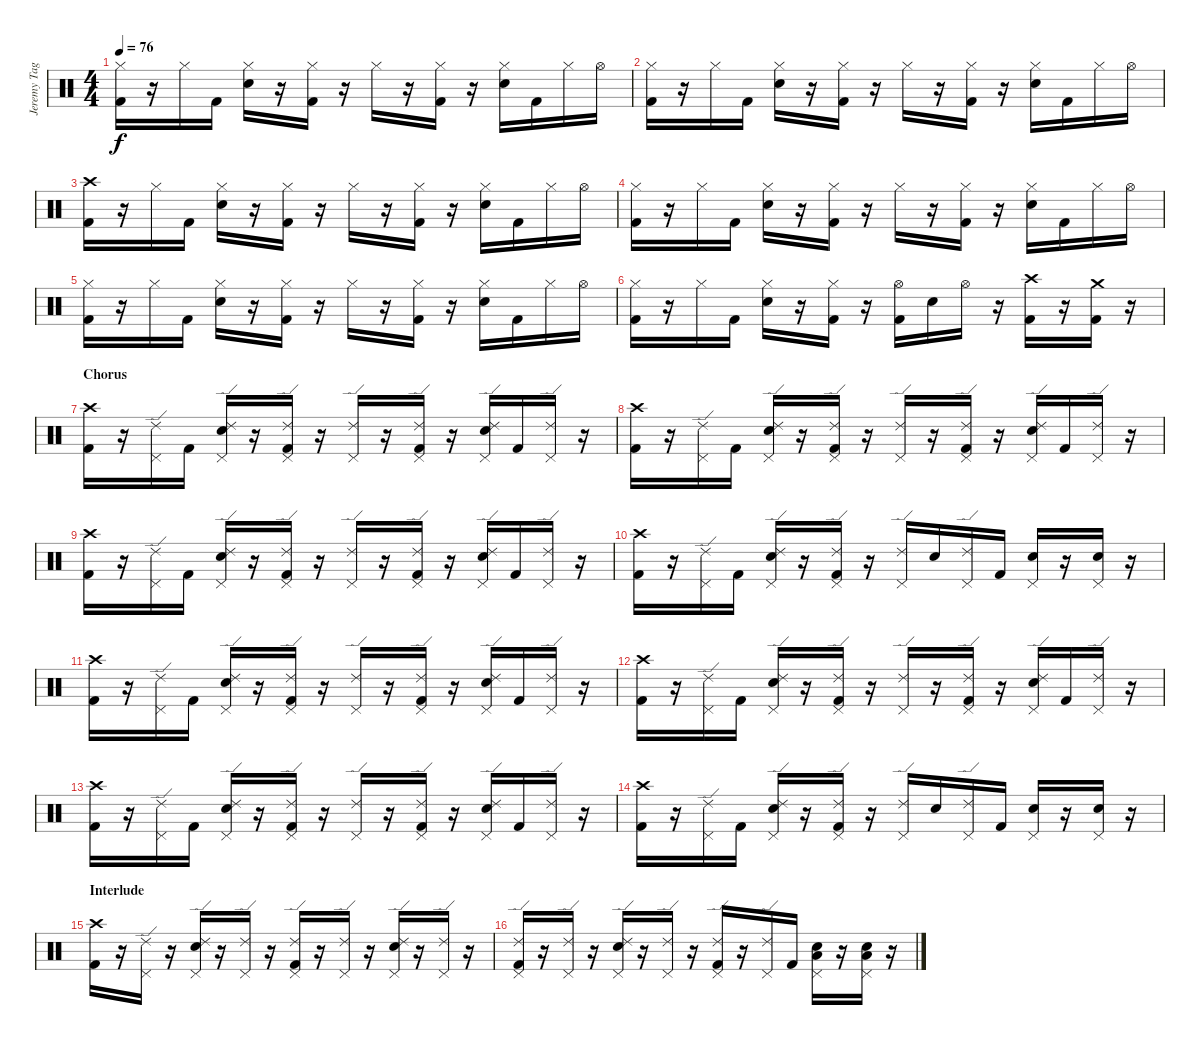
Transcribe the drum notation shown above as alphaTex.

\track ("Jeremy Taggart(Drums)" "Jeremy Tag") {instrument percussion}
\staff {score}
\articulation defaults
\ts (4 4)
\tempo 76
\clef neutral
\ks c
("Hi-Hat (closed)" "Kick (hit) 2").16{dy f} r.16 "Hi-Hat (closed)".16 "Kick (hit) 2".16 ("Hi-Hat (closed)" "Snare (hit) 2").16 r.16 ("Hi-Hat (closed)" "Kick (hit) 2").16 r.16 "Hi-Hat (closed)".16 r.16 ("Hi-Hat (closed)" "Kick (hit) 2").16 r.16 ("Hi-Hat (closed)" "Snare (hit) 2").16 "Kick (hit) 2".16 "Hi-Hat (closed)".16 "Hi-Hat (open)".16 |
("Hi-Hat (closed)" "Kick (hit) 2").16 r.16 "Hi-Hat (closed)".16 "Kick (hit) 2".16 ("Hi-Hat (closed)" "Snare (hit) 2").16 r.16 ("Hi-Hat (closed)" "Kick (hit) 2").16 r.16 "Hi-Hat (closed)".16 r.16 ("Hi-Hat (closed)" "Kick (hit) 2").16 r.16 ("Hi-Hat (closed)" "Snare (hit) 2").16 "Kick (hit) 2".16 "Hi-Hat (closed)".16 "Hi-Hat (open)".16 |
("Crash high (hit)" "Kick (hit) 2").16 r.16 "Hi-Hat (closed)".16 "Kick (hit) 2".16 ("Hi-Hat (closed)" "Snare (hit) 2").16 r.16 ("Hi-Hat (closed)" "Kick (hit) 2").16 r.16 "Hi-Hat (closed)".16 r.16 ("Hi-Hat (closed)" "Kick (hit) 2").16 r.16 ("Hi-Hat (closed)" "Snare (hit) 2").16 "Kick (hit) 2".16 "Hi-Hat (closed)".16 "Hi-Hat (open)".16 |
("Hi-Hat (closed)" "Kick (hit) 2").16 r.16 "Hi-Hat (closed)".16 "Kick (hit) 2".16 ("Hi-Hat (closed)" "Snare (hit) 2").16 r.16 ("Hi-Hat (closed)" "Kick (hit) 2").16 r.16 "Hi-Hat (closed)".16 r.16 ("Hi-Hat (closed)" "Kick (hit) 2").16 r.16 ("Hi-Hat (closed)" "Snare (hit) 2").16 "Kick (hit) 2".16 "Hi-Hat (closed)".16 "Hi-Hat (open)".16 |
("Hi-Hat (closed)" "Kick (hit) 2").16 r.16 "Hi-Hat (closed)".16 "Kick (hit) 2".16 ("Hi-Hat (closed)" "Snare (hit) 2").16 r.16 ("Hi-Hat (closed)" "Kick (hit) 2").16 r.16 "Hi-Hat (closed)".16 r.16 ("Hi-Hat (closed)" "Kick (hit) 2").16 r.16 ("Hi-Hat (closed)" "Snare (hit) 2").16 "Kick (hit) 2".16 "Hi-Hat (closed)".16 "Hi-Hat (open)".16 |
("Hi-Hat (closed)" "Kick (hit) 2").16 r.16 "Hi-Hat (closed)".16 "Kick (hit) 2".16 ("Hi-Hat (closed)" "Snare (hit) 2").16 r.16 ("Hi-Hat (closed)" "Kick (hit) 2").16 r.16 ("Hi-Hat (open)" "Kick (hit) 2").16 "Snare (hit) 2".16 "Hi-Hat (open)".16 r.16 ("Crash high (hit)" "Kick (hit) 2").16 r.16 ("Crash medium (hit)" "Kick (hit) 2").16 r.16 |
\section ("" "Chorus")
("Crash high (hit)" "Kick (hit) 2").16 r.16 ("Ride (edge) 2" "Pedal Hi-Hat (hit)").16 "Kick (hit) 2".16 ("Ride (edge) 2" "Snare (hit) 2" "Pedal Hi-Hat (hit)").16 r.16 ("Ride (edge) 2" "Pedal Hi-Hat (hit)" "Kick (hit) 2").16 r.16 ("Ride (edge) 2" "Pedal Hi-Hat (hit)").16 r.16 ("Ride (edge) 2" "Pedal Hi-Hat (hit)" "Kick (hit) 2").16 r.16 ("Ride (edge) 2" "Snare (hit) 2" "Pedal Hi-Hat (hit)").16 "Kick (hit) 2".16 ("Ride (edge) 2" "Pedal Hi-Hat (hit)").16 r.16 |
("Crash high (hit)" "Kick (hit) 2").16 r.16 ("Ride (edge) 2" "Pedal Hi-Hat (hit)").16 "Kick (hit) 2".16 ("Ride (edge) 2" "Snare (hit) 2" "Pedal Hi-Hat (hit)").16 r.16 ("Ride (edge) 2" "Pedal Hi-Hat (hit)" "Kick (hit) 2").16 r.16 ("Ride (edge) 2" "Pedal Hi-Hat (hit)").16 r.16 ("Ride (edge) 2" "Pedal Hi-Hat (hit)" "Kick (hit) 2").16 r.16 ("Ride (edge) 2" "Snare (hit) 2" "Pedal Hi-Hat (hit)").16 "Kick (hit) 2".16 ("Ride (edge) 2" "Pedal Hi-Hat (hit)").16 r.16 |
("Crash high (hit)" "Kick (hit) 2").16 r.16 ("Ride (edge) 2" "Pedal Hi-Hat (hit)").16 "Kick (hit) 2".16 ("Ride (edge) 2" "Snare (hit) 2" "Pedal Hi-Hat (hit)").16 r.16 ("Ride (edge) 2" "Pedal Hi-Hat (hit)" "Kick (hit) 2").16 r.16 ("Ride (edge) 2" "Pedal Hi-Hat (hit)").16 r.16 ("Ride (edge) 2" "Pedal Hi-Hat (hit)" "Kick (hit) 2").16 r.16 ("Ride (edge) 2" "Snare (hit) 2" "Pedal Hi-Hat (hit)").16 "Kick (hit) 2".16 ("Ride (edge) 2" "Pedal Hi-Hat (hit)").16 r.16 |
("Crash high (hit)" "Kick (hit) 2").16 r.16 ("Ride (edge) 2" "Pedal Hi-Hat (hit)").16 "Kick (hit) 2".16 ("Ride (edge) 2" "Snare (hit) 2" "Pedal Hi-Hat (hit)").16 r.16 ("Ride (edge) 2" "Pedal Hi-Hat (hit)" "Kick (hit) 2").16 r.16 ("Ride (edge) 2" "Pedal Hi-Hat (hit)").16 "Snare (hit) 2".16 ("Ride (edge) 2" "Pedal Hi-Hat (hit)").16 "Kick (hit) 2".16 ("Pedal Hi-Hat (hit)" "Snare (hit) 2").16 r.16 ("Pedal Hi-Hat (hit)" "Snare (hit) 2").16 r.16 |
("Crash high (hit)" "Kick (hit) 2").16 r.16 ("Ride (edge) 2" "Pedal Hi-Hat (hit)").16 "Kick (hit) 2".16 ("Ride (edge) 2" "Snare (hit) 2" "Pedal Hi-Hat (hit)").16 r.16 ("Ride (edge) 2" "Pedal Hi-Hat (hit)" "Kick (hit) 2").16 r.16 ("Ride (edge) 2" "Pedal Hi-Hat (hit)").16 r.16 ("Ride (edge) 2" "Pedal Hi-Hat (hit)" "Kick (hit) 2").16 r.16 ("Ride (edge) 2" "Snare (hit) 2" "Pedal Hi-Hat (hit)").16 "Kick (hit) 2".16 ("Ride (edge) 2" "Pedal Hi-Hat (hit)").16 r.16 |
("Crash high (hit)" "Kick (hit) 2").16 r.16 ("Ride (edge) 2" "Pedal Hi-Hat (hit)").16 "Kick (hit) 2".16 ("Ride (edge) 2" "Snare (hit) 2" "Pedal Hi-Hat (hit)").16 r.16 ("Ride (edge) 2" "Pedal Hi-Hat (hit)" "Kick (hit) 2").16 r.16 ("Ride (edge) 2" "Pedal Hi-Hat (hit)").16 r.16 ("Ride (edge) 2" "Pedal Hi-Hat (hit)" "Kick (hit) 2").16 r.16 ("Ride (edge) 2" "Snare (hit) 2" "Pedal Hi-Hat (hit)").16 "Kick (hit) 2".16 ("Ride (edge) 2" "Pedal Hi-Hat (hit)").16 r.16 |
("Crash high (hit)" "Kick (hit) 2").16 r.16 ("Ride (edge) 2" "Pedal Hi-Hat (hit)").16 "Kick (hit) 2".16 ("Ride (edge) 2" "Snare (hit) 2" "Pedal Hi-Hat (hit)").16 r.16 ("Ride (edge) 2" "Pedal Hi-Hat (hit)" "Kick (hit) 2").16 r.16 ("Ride (edge) 2" "Pedal Hi-Hat (hit)").16 r.16 ("Ride (edge) 2" "Pedal Hi-Hat (hit)" "Kick (hit) 2").16 r.16 ("Ride (edge) 2" "Snare (hit) 2" "Pedal Hi-Hat (hit)").16 "Kick (hit) 2".16 ("Ride (edge) 2" "Pedal Hi-Hat (hit)").16 r.16 |
("Crash high (hit)" "Kick (hit) 2").16 r.16 ("Ride (edge) 2" "Pedal Hi-Hat (hit)").16 "Kick (hit) 2".16 ("Ride (edge) 2" "Snare (hit) 2" "Pedal Hi-Hat (hit)").16 r.16 ("Ride (edge) 2" "Pedal Hi-Hat (hit)" "Kick (hit) 2").16 r.16 ("Ride (edge) 2" "Pedal Hi-Hat (hit)").16 "Snare (hit) 2".16 ("Ride (edge) 2" "Pedal Hi-Hat (hit)").16 "Kick (hit) 2".16 ("Pedal Hi-Hat (hit)" "Snare (hit) 2").16 r.16 ("Pedal Hi-Hat (hit)" "Snare (hit) 2").16 r.16 |
\section ("" "Interlude")
("Crash high (hit)" "Kick (hit) 2").16 r.16 ("Ride (edge) 2" "Pedal Hi-Hat (hit)").16 r.16 ("Ride (edge) 2" "Pedal Hi-Hat (hit)" "Snare (hit) 2").16 r.16 ("Ride (edge) 2" "Pedal Hi-Hat (hit)").16 r.16 ("Ride (edge) 2" "Pedal Hi-Hat (hit)" "Kick (hit) 2").16 r.16 ("Ride (edge) 2" "Pedal Hi-Hat (hit)").16 r.16 ("Ride (edge) 2" "Pedal Hi-Hat (hit)" "Snare (hit) 2").16 r.16 ("Ride (edge) 2" "Pedal Hi-Hat (hit)").16 r.16 |
("Ride (edge) 2" "Pedal Hi-Hat (hit)" "Kick (hit) 2").16 r.16 ("Ride (edge) 2" "Pedal Hi-Hat (hit)").16 r.16 ("Ride (edge) 2" "Pedal Hi-Hat (hit)" "Snare (hit) 2").16 r.16 ("Ride (edge) 2" "Pedal Hi-Hat (hit)").16 r.16 ("Ride (edge) 2" "Pedal Hi-Hat (hit)" "Kick (hit) 2").16 r.16 ("Ride (edge) 2" "Pedal Hi-Hat (hit)").16 "Kick (hit) 2".16 ("Pedal Hi-Hat (hit)" "Snare (hit) 2" "Low Tom (hit)").16 r.16 ("Pedal Hi-Hat (hit)" "Snare (hit) 2" "Low Tom (hit)").16 r.16
